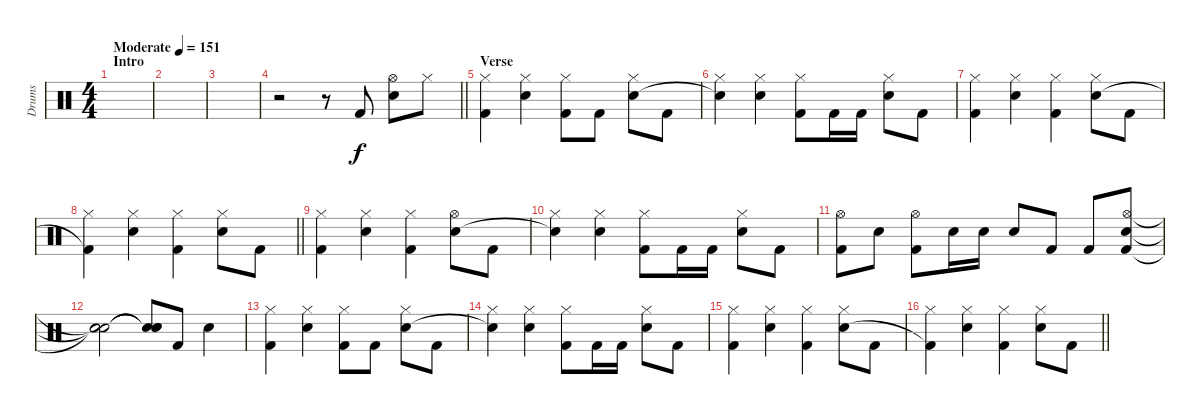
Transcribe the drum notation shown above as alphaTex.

\track ("Drums" "Drums") {instrument percussion}
\staff {score}
\articulation defaults
\ts (4 4)
\section ("" "Intro")
\tempo (151 "Moderate")
\clef neutral
\ks c
|
|
|
\barLineRight lightlight
r.2 r.8 "Kick (hit) 2".8 ("Hi-Hat (open)" "Electric Snare (hit)").8 "Hi-Hat (closed)".8 |
\section ("" "Verse")
("Hi-Hat (closed)" "Kick (hit) 2").4 ("Hi-Hat (closed)" "Electric Snare (hit)").4 ("Hi-Hat (closed)" "Kick (hit) 2").8 "Kick (hit) 2".8 ("Hi-Hat (closed)" "Electric Snare (hit)").8 "Kick (hit) 2".8 |
("Hi-Hat (closed)" "Snare (hit)"{t}).4 ("Hi-Hat (closed)" "Electric Snare (hit)").4 ("Hi-Hat (closed)" "Kick (hit) 2").8 "Kick (hit) 2".16 "Kick (hit) 2".16 ("Hi-Hat (closed)" "Electric Snare (hit)").8 "Kick (hit) 2".8 |
("Hi-Hat (closed)" "Kick (hit) 2").4 ("Hi-Hat (closed)" "Electric Snare (hit)").4 ("Hi-Hat (closed)" "Kick (hit) 2").4 ("Hi-Hat (closed)" "Electric Snare (hit)").8 "Kick (hit) 2".8 |
\barLineRight lightlight
("Hi-Hat (closed)" "Kick (hit) 2"{t}).4 ("Hi-Hat (closed)" "Electric Snare (hit)").4 ("Hi-Hat (closed)" "Kick (hit) 2").4 ("Hi-Hat (closed)" "Electric Snare (hit)").8 "Kick (hit) 2".8 |
("Hi-Hat (closed)" "Kick (hit) 2").4 ("Hi-Hat (closed)" "Electric Snare (hit)").4 ("Hi-Hat (closed)" "Kick (hit) 2").4 ("Hi-Hat (open)" "Electric Snare (hit)").8 "Kick (hit) 2".8 |
("Hi-Hat (closed)" "Snare (hit)"{t}).4 ("Hi-Hat (closed)" "Electric Snare (hit)").4 ("Hi-Hat (closed)" "Kick (hit) 2").8 "Kick (hit) 2".16 "Kick (hit) 2".16 ("Hi-Hat (closed)" "Electric Snare (hit)").8 "Kick (hit) 2".8 |
("Hi-Hat (open)" "Kick (hit) 2").8 "Electric Snare (hit)".8 ("Hi-Hat (open)" "Kick (hit) 2").8 "Electric Snare (hit)".16 "Electric Snare (hit)".16 "Electric Snare (hit)".8 "Kick (hit) 2".8 "Kick (hit) 2".8 ("Hi-Hat (open)" "Electric Snare (hit)" "Kick (hit) 2").8 |
("Snare (hit)"{t} "Snare (hit)"{t} "Snare (hit)"{t}).2 ("Snare (hit)"{t} "Snare (hit)"{t} "Snare (hit)"{t}).8 "Kick (hit) 2".8 "Electric Snare (hit)".4 |
("Hi-Hat (closed)" "Kick (hit) 2").4 ("Hi-Hat (closed)" "Electric Snare (hit)").4 ("Hi-Hat (closed)" "Kick (hit) 2").8 "Kick (hit) 2".8 ("Hi-Hat (closed)" "Electric Snare (hit)").8 "Kick (hit) 2".8 |
("Hi-Hat (closed)" "Snare (hit)"{t}).4 ("Hi-Hat (closed)" "Electric Snare (hit)").4 ("Hi-Hat (closed)" "Kick (hit) 2").8 "Kick (hit) 2".16 "Kick (hit) 2".16 ("Hi-Hat (closed)" "Electric Snare (hit)").8 "Kick (hit) 2".8 |
("Hi-Hat (closed)" "Kick (hit) 2").4 ("Hi-Hat (closed)" "Electric Snare (hit)").4 ("Hi-Hat (closed)" "Kick (hit) 2").4 ("Hi-Hat (closed)" "Electric Snare (hit)").8 "Kick (hit) 2".8 |
\barLineRight lightlight
("Hi-Hat (closed)" "Kick (hit) 2"{t}).4 ("Hi-Hat (closed)" "Electric Snare (hit)").4 ("Hi-Hat (closed)" "Kick (hit) 2").4 ("Hi-Hat (closed)" "Electric Snare (hit)").8 "Kick (hit) 2".8
